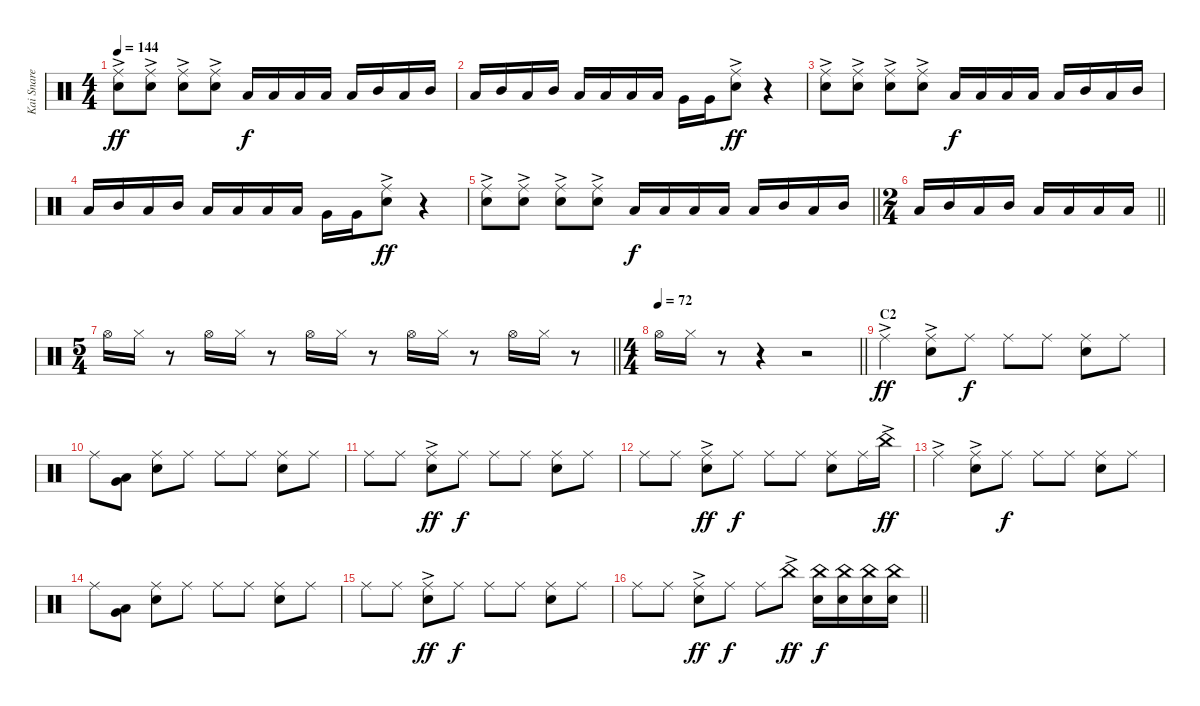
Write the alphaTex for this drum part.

\track ("Kai Snare" "Kai Snare") {instrument percussion}
\staff {score}
\articulation defaults
\ts (4 4)
\tempo 144
\clef neutral
\ks c
("Ride (middle)"{ac} "Snare (hit) 2").8{dy ff} ("Ride (middle)"{ac} "Snare (hit) 2").8 ("Ride (middle)"{ac} "Snare (hit) 2").8 ("Ride (middle)"{ac} "Snare (hit) 2").8 "Low Tom (hit)".16{dy f} "Low Tom (hit)".16 "Low Tom (hit)".16 "Low Tom (hit)".16 "Low Tom (hit)".16 "Mid Tom (hit)".16 "Low Tom (hit)".16 "Mid Tom (hit)".16 |
"Low Tom (hit)".16 "Mid Tom (hit)".16 "Low Tom (hit)".16 "Mid Tom (hit)".16 "Low Tom (hit)".16 "Low Tom (hit)".16 "Low Tom (hit)".16 "Low Tom (hit)".16 "Very Low Tom (hit)".16 "Very Low Tom (hit)".16 ("Ride (middle)"{ac} "Snare (hit) 2").8{dy ff} r.4 |
("Ride (middle)"{ac} "Snare (hit) 2").8 ("Ride (middle)"{ac} "Snare (hit) 2").8 ("Ride (middle)"{ac} "Snare (hit) 2").8 ("Ride (middle)"{ac} "Snare (hit) 2").8 "Low Tom (hit)".16{dy f} "Low Tom (hit)".16 "Low Tom (hit)".16 "Low Tom (hit)".16 "Low Tom (hit)".16 "Mid Tom (hit)".16 "Low Tom (hit)".16 "Mid Tom (hit)".16 |
"Low Tom (hit)".16 "Mid Tom (hit)".16 "Low Tom (hit)".16 "Mid Tom (hit)".16 "Low Tom (hit)".16 "Low Tom (hit)".16 "Low Tom (hit)".16 "Low Tom (hit)".16 "Very Low Tom (hit)".16 "Very Low Tom (hit)".16 ("Ride (middle)"{ac} "Snare (hit) 2").8{dy ff} r.4 |
\barLineRight lightlight
("Ride (middle)"{ac} "Snare (hit) 2").8 ("Ride (middle)"{ac} "Snare (hit) 2").8 ("Ride (middle)"{ac} "Snare (hit) 2").8 ("Ride (middle)"{ac} "Snare (hit) 2").8 "Low Tom (hit)".16{dy f} "Low Tom (hit)".16 "Low Tom (hit)".16 "Low Tom (hit)".16 "Low Tom (hit)".16 "Mid Tom (hit)".16 "Low Tom (hit)".16 "Mid Tom (hit)".16 |
\ts (2 4)
\barLineRight lightlight "Low Tom (hit)".16 "Mid Tom (hit)".16 "Low Tom (hit)".16 "Mid Tom (hit)".16 "Low Tom (hit)".16 "Low Tom (hit)".16 "Low Tom (hit)".16 "Low Tom (hit)".16
|
\ts (5 4)
\barLineRight lightlight "Hi-Hat (open)".16 "Hi-Hat (closed)".16
r.8 "Hi-Hat (open)".16 "Hi-Hat (closed)".16 r.8 "Hi-Hat (open)".16 "Hi-Hat (closed)".16 r.8 "Hi-Hat (open)".16 "Hi-Hat (closed)".16 r.8 "Hi-Hat (open)".16 "Hi-Hat (closed)".16 r.8 |
\ts (4 4)
\tempo 72
\barLineRight lightlight "Hi-Hat (open)".16 "Hi-Hat (closed)".16
r.8 r.4 r.2 |
\section ("" "C2")
"Ride (middle)"{ac}.4{dy ff} ("Ride (middle)"{ac} "Snare (hit) 2").8 "Ride (middle)".8{dy f} "Ride (middle)".8 "Ride (middle)".8 ("Ride (middle)" "Snare (hit) 2").8 "Ride (middle)".8 |
"Ride (middle)".8 ("Very Low Tom (hit)" "Low Tom (hit)").8 ("Ride (middle)" "Snare (hit) 2").8 "Ride (middle)".8 "Ride (middle)".8 "Ride (middle)".8 ("Ride (middle)" "Snare (hit) 2").8 "Ride (middle)".8 |
"Ride (middle)".8 "Ride (middle)".8 ("Ride (middle)"{ac} "Snare (hit) 2").8{dy ff} "Ride (middle)".8{dy f} "Ride (middle)".8 "Ride (middle)".8 ("Ride (middle)" "Snare (hit) 2").8 "Ride (middle)".8 |
"Ride (middle)".8 "Ride (middle)".8 ("Ride (middle)"{ac} "Snare (hit) 2").8{dy ff} "Ride (middle)".8{dy f} "Ride (middle)".8 "Ride (middle)".8 ("Ride (middle)" "Snare (hit) 2").8 "Ride (middle)".16 "China (hit)"{ac}.16{dy ff} |
"Ride (middle)"{ac}.4 ("Ride (middle)"{ac} "Snare (hit) 2").8 "Ride (middle)".8{dy f} "Ride (middle)".8 "Ride (middle)".8 ("Ride (middle)" "Snare (hit) 2").8 "Ride (middle)".8 |
"Ride (middle)".8 ("Very Low Tom (hit)" "Low Tom (hit)").8 ("Ride (middle)" "Snare (hit) 2").8 "Ride (middle)".8 "Ride (middle)".8 "Ride (middle)".8 ("Ride (middle)" "Snare (hit) 2").8 "Ride (middle)".8 |
"Ride (middle)".8 "Ride (middle)".8 ("Ride (middle)"{ac} "Snare (hit) 2").8{dy ff} "Ride (middle)".8{dy f} "Ride (middle)".8 "Ride (middle)".8 ("Ride (middle)" "Snare (hit) 2").8 "Ride (middle)".8 |
\barLineRight lightlight "Ride (middle)".8 "Ride (middle)".8
("Ride (middle)"{ac} "Snare (hit) 2").8{dy ff} "Ride (middle)".8{dy f} "Ride (middle)".8 "China (hit)"{ac}.8{dy ff} ("China (hit)" "Snare (hit) 2").16{dy f} ("China (hit)" "Snare (hit) 2").16 ("China (hit)" "Snare (hit) 2").16 ("China (hit)" "Snare (hit) 2").16
